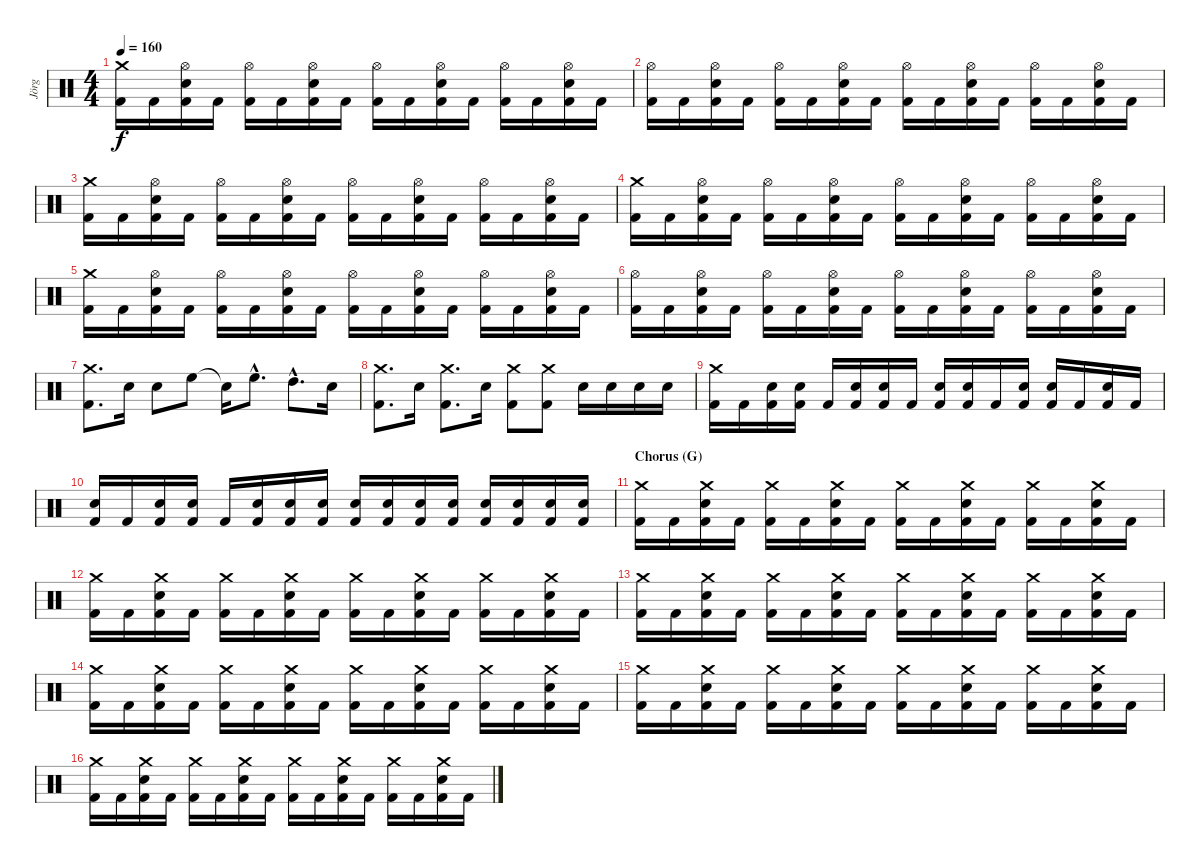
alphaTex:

\track ("Jörg" "Jörg") {instrument percussion}
\staff {score}
\articulation defaults
\ts (4 4)
\tempo 160
\clef neutral
\ks c
("Crash medium (hit)" "Kick (hit) 2").16{dy f} "Kick (hit) 2".16 ("Hi-Hat (open)" "Snare (hit) 2" "Kick (hit) 2").16 "Kick (hit) 2".16 ("Hi-Hat (open)" "Kick (hit) 2").16 "Kick (hit) 2".16 ("Hi-Hat (open)" "Snare (hit) 2" "Kick (hit) 2").16 "Kick (hit) 2".16 ("Hi-Hat (open)" "Kick (hit) 2").16 "Kick (hit) 2".16 ("Hi-Hat (open)" "Snare (hit) 2" "Kick (hit) 2").16 "Kick (hit) 2".16 ("Hi-Hat (open)" "Kick (hit) 2").16 "Kick (hit) 2".16 ("Hi-Hat (open)" "Snare (hit) 2" "Kick (hit) 2").16 "Kick (hit) 2".16 |
("Hi-Hat (open)" "Kick (hit) 2").16 "Kick (hit) 2".16 ("Hi-Hat (open)" "Snare (hit) 2" "Kick (hit) 2").16 "Kick (hit) 2".16 ("Hi-Hat (open)" "Kick (hit) 2").16 "Kick (hit) 2".16 ("Hi-Hat (open)" "Snare (hit) 2" "Kick (hit) 2").16 "Kick (hit) 2".16 ("Hi-Hat (open)" "Kick (hit) 2").16 "Kick (hit) 2".16 ("Hi-Hat (open)" "Snare (hit) 2" "Kick (hit) 2").16 "Kick (hit) 2".16 ("Hi-Hat (open)" "Kick (hit) 2").16 "Kick (hit) 2".16 ("Hi-Hat (open)" "Snare (hit) 2" "Kick (hit) 2").16 "Kick (hit) 2".16 |
("Crash medium (hit)" "Kick (hit) 2").16 "Kick (hit) 2".16 ("Hi-Hat (open)" "Snare (hit) 2" "Kick (hit) 2").16 "Kick (hit) 2".16 ("Hi-Hat (open)" "Kick (hit) 2").16 "Kick (hit) 2".16 ("Hi-Hat (open)" "Snare (hit) 2" "Kick (hit) 2").16 "Kick (hit) 2".16 ("Hi-Hat (open)" "Kick (hit) 2").16 "Kick (hit) 2".16 ("Hi-Hat (open)" "Snare (hit) 2" "Kick (hit) 2").16 "Kick (hit) 2".16 ("Hi-Hat (open)" "Kick (hit) 2").16 "Kick (hit) 2".16 ("Hi-Hat (open)" "Snare (hit) 2" "Kick (hit) 2").16 "Kick (hit) 2".16 |
("Crash medium (hit)" "Kick (hit) 2").16 "Kick (hit) 2".16 ("Hi-Hat (open)" "Snare (hit) 2" "Kick (hit) 2").16 "Kick (hit) 2".16 ("Hi-Hat (open)" "Kick (hit) 2").16 "Kick (hit) 2".16 ("Hi-Hat (open)" "Snare (hit) 2" "Kick (hit) 2").16 "Kick (hit) 2".16 ("Hi-Hat (open)" "Kick (hit) 2").16 "Kick (hit) 2".16 ("Hi-Hat (open)" "Snare (hit) 2" "Kick (hit) 2").16 "Kick (hit) 2".16 ("Hi-Hat (open)" "Kick (hit) 2").16 "Kick (hit) 2".16 ("Hi-Hat (open)" "Snare (hit) 2" "Kick (hit) 2").16 "Kick (hit) 2".16 |
("Crash medium (hit)" "Kick (hit) 2").16 "Kick (hit) 2".16 ("Hi-Hat (open)" "Snare (hit) 2" "Kick (hit) 2").16 "Kick (hit) 2".16 ("Hi-Hat (open)" "Kick (hit) 2").16 "Kick (hit) 2".16 ("Hi-Hat (open)" "Snare (hit) 2" "Kick (hit) 2").16 "Kick (hit) 2".16 ("Hi-Hat (open)" "Kick (hit) 2").16 "Kick (hit) 2".16 ("Hi-Hat (open)" "Snare (hit) 2" "Kick (hit) 2").16 "Kick (hit) 2".16 ("Hi-Hat (open)" "Kick (hit) 2").16 "Kick (hit) 2".16 ("Hi-Hat (open)" "Snare (hit) 2" "Kick (hit) 2").16 "Kick (hit) 2".16 |
("Hi-Hat (open)" "Kick (hit) 2").16 "Kick (hit) 2".16 ("Hi-Hat (open)" "Snare (hit) 2" "Kick (hit) 2").16 "Kick (hit) 2".16 ("Hi-Hat (open)" "Kick (hit) 2").16 "Kick (hit) 2".16 ("Hi-Hat (open)" "Snare (hit) 2" "Kick (hit) 2").16 "Kick (hit) 2".16 ("Hi-Hat (open)" "Kick (hit) 2").16 "Kick (hit) 2".16 ("Hi-Hat (open)" "Snare (hit) 2" "Kick (hit) 2").16 "Kick (hit) 2".16 ("Hi-Hat (open)" "Kick (hit) 2").16 "Kick (hit) 2".16 ("Hi-Hat (open)" "Snare (hit) 2" "Kick (hit) 2").16 "Kick (hit) 2".16 |
("Crash medium (hit)" "Kick (hit) 2").8{d} "Snare (hit) 2".16 "Snare (hit) 2".8 "High Floor Tom (hit)".8 "Snare (hit)"{t}.16 "High Floor Tom (hit)"{hac}.8{d} "High Tom (hit)"{hac}.8{d} "Snare (hit) 2".16 |
("Crash medium (hit)" "Kick (hit) 2").8{d} "Snare (hit) 2".16 ("Crash medium (hit)" "Kick (hit) 2").8{d} "Snare (hit) 2".16 ("Crash medium (hit)" "Kick (hit) 2").8 ("Crash medium (hit)" "Kick (hit) 2").8 "Snare (hit) 2".16 "Snare (hit) 2".16 "Snare (hit) 2".16 "Snare (hit) 2".16 |
("Crash medium (hit)" "Kick (hit) 2").16 "Kick (hit) 2".16 ("Snare (hit) 2" "Kick (hit) 2").16 ("Snare (hit) 2" "Kick (hit) 2").16 "Kick (hit) 2".16 ("Snare (hit) 2" "Kick (hit) 2").16 ("Snare (hit) 2" "Kick (hit) 2").16 "Kick (hit) 2".16 ("Snare (hit) 2" "Kick (hit) 2").16 ("Snare (hit) 2" "Kick (hit) 2").16 "Kick (hit) 2".16 ("Snare (hit) 2" "Kick (hit) 2").16 ("Snare (hit) 2" "Kick (hit) 2").16 "Kick (hit) 2".16 ("Snare (hit) 2" "Kick (hit) 2").16 "Kick (hit) 2".16 |
("Snare (hit) 2" "Kick (hit) 2").16 "Kick (hit) 2".16 ("Snare (hit) 2" "Kick (hit) 2").16 ("Snare (hit) 2" "Kick (hit) 2").16 "Kick (hit) 2".16 ("Snare (hit) 2" "Kick (hit) 2").16 ("Snare (hit) 2" "Kick (hit) 2").16 ("Snare (hit) 2" "Kick (hit) 2").16 ("Snare (hit) 2" "Kick (hit) 2").16 ("Snare (hit) 2" "Kick (hit) 2").16 ("Snare (hit) 2" "Kick (hit) 2").16 ("Snare (hit) 2" "Kick (hit) 2").16 ("Snare (hit) 2" "Kick (hit) 2").16 ("Snare (hit) 2" "Kick (hit) 2").16 ("Snare (hit) 2" "Kick (hit) 2").16 ("Snare (hit) 2" "Kick (hit) 2").16 |
\section ("" "Chorus (G)")
("Crash medium (hit)" "Kick (hit) 2").16 "Kick (hit) 2".16 ("Crash medium (hit)" "Snare (hit) 2" "Kick (hit) 2").16 "Kick (hit) 2".16 ("Crash medium (hit)" "Kick (hit) 2").16 "Kick (hit) 2".16 ("Crash medium (hit)" "Snare (hit) 2" "Kick (hit) 2").16 "Kick (hit) 2".16 ("Crash medium (hit)" "Kick (hit) 2").16 "Kick (hit) 2".16 ("Crash medium (hit)" "Snare (hit) 2" "Kick (hit) 2").16 "Kick (hit) 2".16 ("Crash medium (hit)" "Kick (hit) 2").16 "Kick (hit) 2".16 ("Crash medium (hit)" "Snare (hit) 2" "Kick (hit) 2").16 "Kick (hit) 2".16 |
("Crash medium (hit)" "Kick (hit) 2").16 "Kick (hit) 2".16 ("Crash medium (hit)" "Snare (hit) 2" "Kick (hit) 2").16 "Kick (hit) 2".16 ("Crash medium (hit)" "Kick (hit) 2").16 "Kick (hit) 2".16 ("Crash medium (hit)" "Snare (hit) 2" "Kick (hit) 2").16 "Kick (hit) 2".16 ("Crash medium (hit)" "Kick (hit) 2").16 "Kick (hit) 2".16 ("Crash medium (hit)" "Snare (hit) 2" "Kick (hit) 2").16 "Kick (hit) 2".16 ("Crash medium (hit)" "Kick (hit) 2").16 "Kick (hit) 2".16 ("Crash medium (hit)" "Snare (hit) 2" "Kick (hit) 2").16 "Kick (hit) 2".16 |
("Crash medium (hit)" "Kick (hit) 2").16 "Kick (hit) 2".16 ("Crash medium (hit)" "Snare (hit) 2" "Kick (hit) 2").16 "Kick (hit) 2".16 ("Crash medium (hit)" "Kick (hit) 2").16 "Kick (hit) 2".16 ("Crash medium (hit)" "Snare (hit) 2" "Kick (hit) 2").16 "Kick (hit) 2".16 ("Crash medium (hit)" "Kick (hit) 2").16 "Kick (hit) 2".16 ("Crash medium (hit)" "Snare (hit) 2" "Kick (hit) 2").16 "Kick (hit) 2".16 ("Crash medium (hit)" "Kick (hit) 2").16 "Kick (hit) 2".16 ("Crash medium (hit)" "Snare (hit) 2" "Kick (hit) 2").16 "Kick (hit) 2".16 |
("Crash medium (hit)" "Kick (hit) 2").16 "Kick (hit) 2".16 ("Crash medium (hit)" "Snare (hit) 2" "Kick (hit) 2").16 "Kick (hit) 2".16 ("Crash medium (hit)" "Kick (hit) 2").16 "Kick (hit) 2".16 ("Crash medium (hit)" "Snare (hit) 2" "Kick (hit) 2").16 "Kick (hit) 2".16 ("Crash medium (hit)" "Kick (hit) 2").16 "Kick (hit) 2".16 ("Crash medium (hit)" "Snare (hit) 2" "Kick (hit) 2").16 "Kick (hit) 2".16 ("Crash medium (hit)" "Kick (hit) 2").16 "Kick (hit) 2".16 ("Crash medium (hit)" "Snare (hit) 2" "Kick (hit) 2").16 "Kick (hit) 2".16 |
("Crash medium (hit)" "Kick (hit) 2").16 "Kick (hit) 2".16 ("Crash medium (hit)" "Snare (hit) 2" "Kick (hit) 2").16 "Kick (hit) 2".16 ("Crash medium (hit)" "Kick (hit) 2").16 "Kick (hit) 2".16 ("Crash medium (hit)" "Snare (hit) 2" "Kick (hit) 2").16 "Kick (hit) 2".16 ("Crash medium (hit)" "Kick (hit) 2").16 "Kick (hit) 2".16 ("Crash medium (hit)" "Snare (hit) 2" "Kick (hit) 2").16 "Kick (hit) 2".16 ("Crash medium (hit)" "Kick (hit) 2").16 "Kick (hit) 2".16 ("Crash medium (hit)" "Snare (hit) 2" "Kick (hit) 2").16 "Kick (hit) 2".16 |
("Crash medium (hit)" "Kick (hit) 2").16 "Kick (hit) 2".16 ("Crash medium (hit)" "Snare (hit) 2" "Kick (hit) 2").16 "Kick (hit) 2".16 ("Crash medium (hit)" "Kick (hit) 2").16 "Kick (hit) 2".16 ("Crash medium (hit)" "Snare (hit) 2" "Kick (hit) 2").16 "Kick (hit) 2".16 ("Crash medium (hit)" "Kick (hit) 2").16 "Kick (hit) 2".16 ("Crash medium (hit)" "Snare (hit) 2" "Kick (hit) 2").16 "Kick (hit) 2".16 ("Crash medium (hit)" "Kick (hit) 2").16 "Kick (hit) 2".16 ("Crash medium (hit)" "Snare (hit) 2" "Kick (hit) 2").16 "Kick (hit) 2".16
